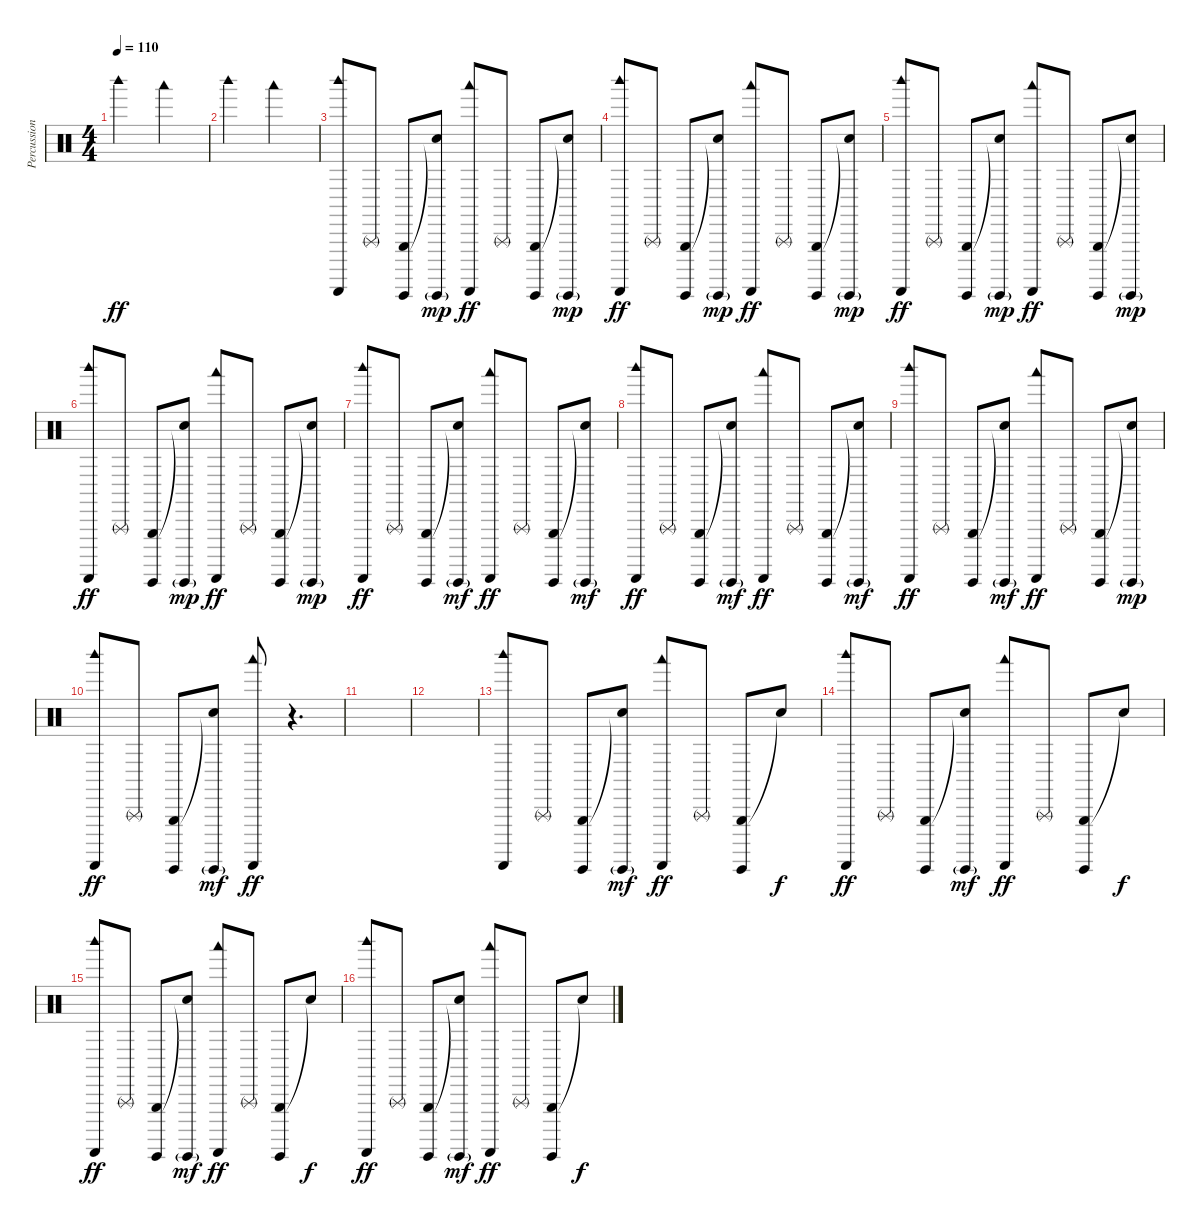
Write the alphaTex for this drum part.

\track ("Percussion" "Percussion") {instrument percussion}
\staff {score}
\articulation defaults
\ts (4 4)
\tempo 110
\clef neutral
\ks c "Woodblock high (hit)".2{dy ff} "Woodblock low (hit)".2
|
"Woodblock high (hit)".2 "Woodblock low (hit)".2 |
("Woodblock high (hit)" "Guiro (scrap-return)").8 "Triangle (rnute)".8 ("Triangle (hit)" "Guiro (hit)").8 ("Snare (hit)"{t} "Guiro (hit)"{g}).8{dy mp} ("Woodblock low (hit)" "Guiro (scrap-return)").8{dy ff} "Triangle (rnute)".8 ("Triangle (hit)" "Guiro (hit)").8 ("Snare (hit)"{t} "Guiro (hit)"{g}).8{dy mp} |
("Woodblock high (hit)" "Guiro (scrap-return)").8{dy ff} "Triangle (rnute)".8 ("Triangle (hit)" "Guiro (hit)").8 ("Snare (hit)"{t} "Guiro (hit)"{g}).8{dy mp} ("Woodblock low (hit)" "Guiro (scrap-return)").8{dy ff} "Triangle (rnute)".8 ("Triangle (hit)" "Guiro (hit)").8 ("Snare (hit)"{t} "Guiro (hit)"{g}).8{dy mp} |
("Woodblock high (hit)" "Guiro (scrap-return)").8{dy ff} "Triangle (rnute)".8 ("Triangle (hit)" "Guiro (hit)").8 ("Snare (hit)"{t} "Guiro (hit)"{g}).8{dy mp} ("Woodblock low (hit)" "Guiro (scrap-return)").8{dy ff} "Triangle (rnute)".8 ("Triangle (hit)" "Guiro (hit)").8 ("Snare (hit)"{t} "Guiro (hit)"{g}).8{dy mp} |
("Woodblock high (hit)" "Guiro (scrap-return)").8{dy ff} "Triangle (rnute)".8 ("Triangle (hit)" "Guiro (hit)").8 ("Snare (hit)"{t} "Guiro (hit)"{g}).8{dy mp} ("Woodblock low (hit)" "Guiro (scrap-return)").8{dy ff} "Triangle (rnute)".8 ("Triangle (hit)" "Guiro (hit)").8 ("Snare (hit)"{t} "Guiro (hit)"{g}).8{dy mp} |
("Woodblock high (hit)" "Guiro (scrap-return)").8{dy ff} "Triangle (rnute)".8 ("Triangle (hit)" "Guiro (hit)").8 ("Snare (hit)"{t} "Guiro (hit)"{g}).8{dy mf} ("Woodblock low (hit)" "Guiro (scrap-return)").8{dy ff} "Triangle (rnute)".8 ("Triangle (hit)" "Guiro (hit)").8 ("Snare (hit)"{t} "Guiro (hit)"{g}).8{dy mf} |
("Woodblock high (hit)" "Guiro (scrap-return)").8{dy ff} "Triangle (rnute)".8 ("Triangle (hit)" "Guiro (hit)").8 ("Snare (hit)"{t} "Guiro (hit)"{g}).8{dy mf} ("Woodblock low (hit)" "Guiro (scrap-return)").8{dy ff} "Triangle (rnute)".8 ("Triangle (hit)" "Guiro (hit)").8 ("Snare (hit)"{t} "Guiro (hit)"{g}).8{dy mf} |
("Woodblock high (hit)" "Guiro (scrap-return)").8{dy ff} "Triangle (rnute)".8 ("Triangle (hit)" "Guiro (hit)").8 ("Snare (hit)"{t} "Guiro (hit)"{g}).8{dy mf} ("Woodblock low (hit)" "Guiro (scrap-return)").8{dy ff} "Triangle (rnute)".8 ("Triangle (hit)" "Guiro (hit)").8 ("Snare (hit)"{t} "Guiro (hit)"{g}).8{dy mp} |
("Woodblock high (hit)" "Guiro (scrap-return)").8{dy ff} "Triangle (rnute)".8 ("Triangle (hit)" "Guiro (hit)").8 ("Snare (hit)"{t} "Guiro (hit)"{g}).8{dy mf} ("Woodblock low (hit)" "Guiro (scrap-return)").8{dy ff} r.4{d} |
|
|
("Woodblock high (hit)" "Guiro (scrap-return)").8 "Triangle (rnute)".8 ("Triangle (hit)" "Guiro (hit)").8 ("Snare (hit)"{t} "Guiro (hit)"{g}).8{dy mf} ("Woodblock low (hit)" "Guiro (scrap-return)").8{dy ff} "Triangle (rnute)".8 ("Triangle (hit)" "Guiro (hit)").8 "Snare (hit)"{t}.8{dy f} |
("Woodblock high (hit)" "Guiro (scrap-return)").8{dy ff} "Triangle (rnute)".8 ("Triangle (hit)" "Guiro (hit)").8 ("Snare (hit)"{t} "Guiro (hit)"{g}).8{dy mf} ("Woodblock low (hit)" "Guiro (scrap-return)").8{dy ff} "Triangle (rnute)".8 ("Triangle (hit)" "Guiro (hit)").8 "Snare (hit)"{t}.8{dy f} |
("Woodblock high (hit)" "Guiro (scrap-return)").8{dy ff} "Triangle (rnute)".8 ("Triangle (hit)" "Guiro (hit)").8 ("Snare (hit)"{t} "Guiro (hit)"{g}).8{dy mf} ("Woodblock low (hit)" "Guiro (scrap-return)").8{dy ff} "Triangle (rnute)".8 ("Triangle (hit)" "Guiro (hit)").8 "Snare (hit)"{t}.8{dy f} |
("Woodblock high (hit)" "Guiro (scrap-return)").8{dy ff} "Triangle (rnute)".8 ("Triangle (hit)" "Guiro (hit)").8 ("Snare (hit)"{t} "Guiro (hit)"{g}).8{dy mf} ("Woodblock low (hit)" "Guiro (scrap-return)").8{dy ff} "Triangle (rnute)".8 ("Triangle (hit)" "Guiro (hit)").8 "Snare (hit)"{t}.8{dy f}
